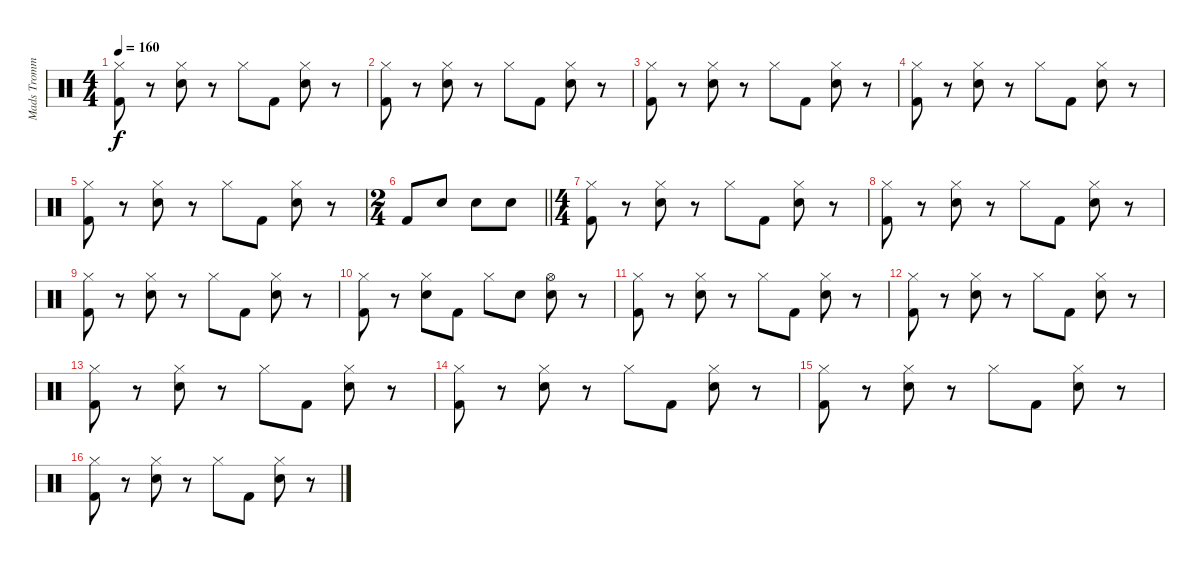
\track ("Mads Trommer" "Mads Tromm") {instrument percussion}
\staff {score}
\articulation defaults
\ts (4 4)
\tempo 160
\clef neutral
\ks c
("Hi-Hat (closed)" "Kick (hit) 2").8{dy f} r.8 ("Hi-Hat (closed)" "Electric Snare (hit)").8 r.8 "Hi-Hat (closed)".8 "Kick (hit) 2".8 ("Hi-Hat (closed)" "Electric Snare (hit)").8 r.8 |
("Hi-Hat (closed)" "Kick (hit) 2").8 r.8 ("Hi-Hat (closed)" "Electric Snare (hit)").8 r.8 "Hi-Hat (closed)".8 "Kick (hit) 2".8 ("Hi-Hat (closed)" "Electric Snare (hit)").8 r.8 |
("Hi-Hat (closed)" "Kick (hit) 2").8 r.8 ("Hi-Hat (closed)" "Electric Snare (hit)").8 r.8 "Hi-Hat (closed)".8 "Kick (hit) 2".8 ("Hi-Hat (closed)" "Electric Snare (hit)").8 r.8 |
("Hi-Hat (closed)" "Kick (hit) 2").8 r.8 ("Hi-Hat (closed)" "Electric Snare (hit)").8 r.8 "Hi-Hat (closed)".8 "Kick (hit) 2".8 ("Hi-Hat (closed)" "Electric Snare (hit)").8 r.8 |
("Hi-Hat (closed)" "Kick (hit) 2").8 r.8 ("Hi-Hat (closed)" "Electric Snare (hit)").8 r.8 "Hi-Hat (closed)".8 "Kick (hit) 2".8 ("Hi-Hat (closed)" "Electric Snare (hit)").8 r.8 |
\ts (2 4)
\barLineRight lightlight "Kick (hit) 2".8 "Electric Snare (hit)".8 "Electric Snare (hit)".8 "Electric Snare (hit)".8
|
\ts (4 4)
("Hi-Hat (closed)" "Kick (hit) 2").8 r.8 ("Hi-Hat (closed)" "Electric Snare (hit)").8 r.8 "Hi-Hat (closed)".8 "Kick (hit) 2".8 ("Hi-Hat (closed)" "Electric Snare (hit)").8 r.8 |
("Hi-Hat (closed)" "Kick (hit) 2").8 r.8 ("Hi-Hat (closed)" "Electric Snare (hit)").8 r.8 "Hi-Hat (closed)".8 "Kick (hit) 2".8 ("Hi-Hat (closed)" "Electric Snare (hit)").8 r.8 |
("Hi-Hat (closed)" "Kick (hit) 2").8 r.8 ("Hi-Hat (closed)" "Electric Snare (hit)").8 r.8 "Hi-Hat (closed)".8 "Kick (hit) 2".8 ("Hi-Hat (closed)" "Electric Snare (hit)").8 r.8 |
("Hi-Hat (closed)" "Kick (hit) 2").8 r.8 ("Hi-Hat (closed)" "Electric Snare (hit)").8 "Kick (hit) 2".8 "Hi-Hat (closed)".8 "Electric Snare (hit)".8 ("Hi-Hat (open)" "Electric Snare (hit)").8 r.8 |
("Hi-Hat (closed)" "Kick (hit) 2").8 r.8 ("Hi-Hat (closed)" "Electric Snare (hit)").8 r.8 "Hi-Hat (closed)".8 "Kick (hit) 2".8 ("Hi-Hat (closed)" "Electric Snare (hit)").8 r.8 |
("Hi-Hat (closed)" "Kick (hit) 2").8 r.8 ("Hi-Hat (closed)" "Electric Snare (hit)").8 r.8 "Hi-Hat (closed)".8 "Kick (hit) 2".8 ("Hi-Hat (closed)" "Electric Snare (hit)").8 r.8 |
("Hi-Hat (closed)" "Kick (hit) 2").8 r.8 ("Hi-Hat (closed)" "Electric Snare (hit)").8 r.8 "Hi-Hat (closed)".8 "Kick (hit) 2".8 ("Hi-Hat (closed)" "Electric Snare (hit)").8 r.8 |
("Hi-Hat (closed)" "Kick (hit) 2").8 r.8 ("Hi-Hat (closed)" "Electric Snare (hit)").8 r.8 "Hi-Hat (closed)".8 "Kick (hit) 2".8 ("Hi-Hat (closed)" "Electric Snare (hit)").8 r.8 |
("Hi-Hat (closed)" "Kick (hit) 2").8 r.8 ("Hi-Hat (closed)" "Electric Snare (hit)").8 r.8 "Hi-Hat (closed)".8 "Kick (hit) 2".8 ("Hi-Hat (closed)" "Electric Snare (hit)").8 r.8 |
("Hi-Hat (closed)" "Kick (hit) 2").8 r.8 ("Hi-Hat (closed)" "Electric Snare (hit)").8 r.8 "Hi-Hat (closed)".8 "Kick (hit) 2".8 ("Hi-Hat (closed)" "Electric Snare (hit)").8 r.8
